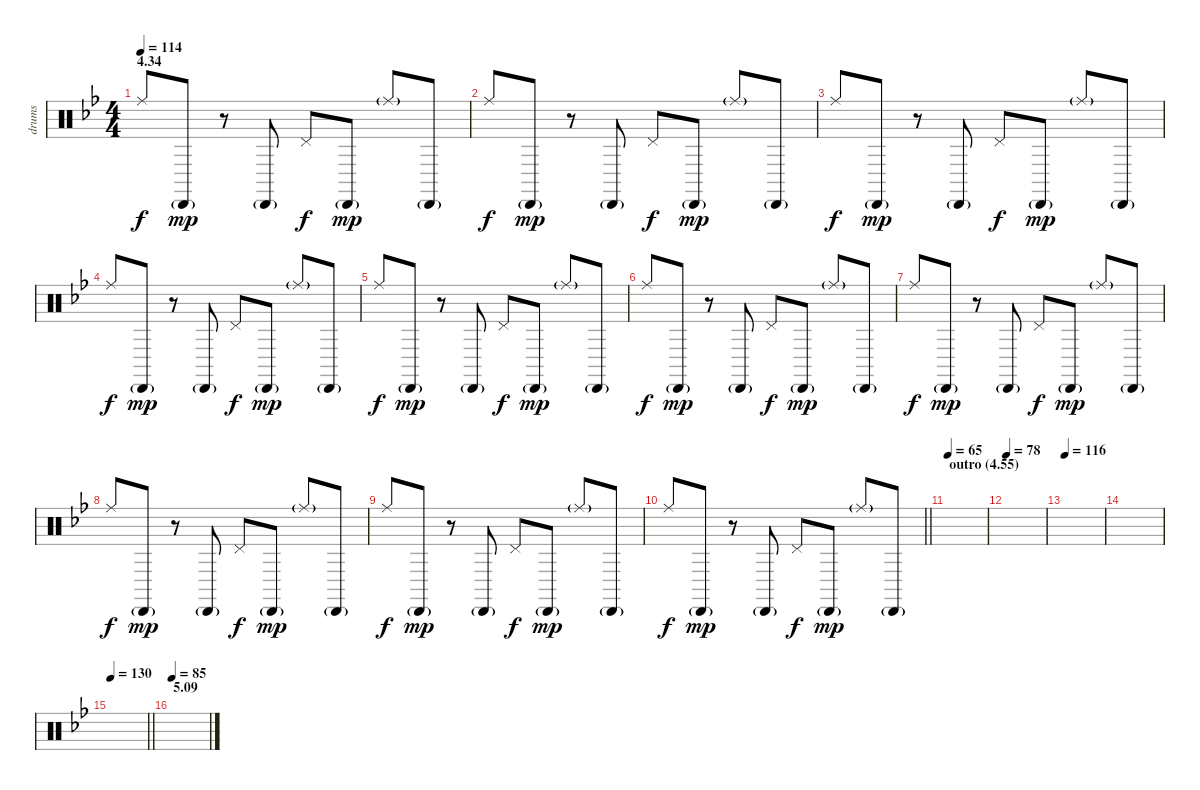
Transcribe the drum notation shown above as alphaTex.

\track ("drums" "drums") {instrument percussion}
\staff {score}
\articulation defaults
\ts (4 4)
\section ("" "4.34")
\tempo 114
\clef neutral
\ks bb "Ride (middle)".8{dy f} "Cabasa (hit)"{g}.8{dy mp}
r.8 "Cabasa (hit)"{g}.8 "Pedal Hi-Hat (hit)".8{dy f} "Cabasa (hit)"{g}.8{dy mp} "Ride (middle)"{g}.8 "Cabasa (hit)"{g}.8 |
"Ride (middle)".8{dy f} "Cabasa (hit)"{g}.8{dy mp} r.8 "Cabasa (hit)"{g}.8 "Pedal Hi-Hat (hit)".8{dy f} "Cabasa (hit)"{g}.8{dy mp} "Ride (middle)"{g}.8 "Cabasa (hit)"{g}.8 |
"Ride (middle)".8{dy f} "Cabasa (hit)"{g}.8{dy mp} r.8 "Cabasa (hit)"{g}.8 "Pedal Hi-Hat (hit)".8{dy f} "Cabasa (hit)"{g}.8{dy mp} "Ride (middle)"{g}.8 "Cabasa (hit)"{g}.8 |
"Ride (middle)".8{dy f} "Cabasa (hit)"{g}.8{dy mp} r.8 "Cabasa (hit)"{g}.8 "Pedal Hi-Hat (hit)".8{dy f} "Cabasa (hit)"{g}.8{dy mp} "Ride (middle)"{g}.8 "Cabasa (hit)"{g}.8 |
"Ride (middle)".8{dy f} "Cabasa (hit)"{g}.8{dy mp} r.8 "Cabasa (hit)"{g}.8 "Pedal Hi-Hat (hit)".8{dy f} "Cabasa (hit)"{g}.8{dy mp} "Ride (middle)"{g}.8 "Cabasa (hit)"{g}.8 |
"Ride (middle)".8{dy f} "Cabasa (hit)"{g}.8{dy mp} r.8 "Cabasa (hit)"{g}.8 "Pedal Hi-Hat (hit)".8{dy f} "Cabasa (hit)"{g}.8{dy mp} "Ride (middle)"{g}.8 "Cabasa (hit)"{g}.8 |
"Ride (middle)".8{dy f} "Cabasa (hit)"{g}.8{dy mp} r.8 "Cabasa (hit)"{g}.8 "Pedal Hi-Hat (hit)".8{dy f} "Cabasa (hit)"{g}.8{dy mp} "Ride (middle)"{g}.8 "Cabasa (hit)"{g}.8 |
"Ride (middle)".8{dy f} "Cabasa (hit)"{g}.8{dy mp} r.8 "Cabasa (hit)"{g}.8 "Pedal Hi-Hat (hit)".8{dy f} "Cabasa (hit)"{g}.8{dy mp} "Ride (middle)"{g}.8 "Cabasa (hit)"{g}.8 |
"Ride (middle)".8{dy f} "Cabasa (hit)"{g}.8{dy mp} r.8 "Cabasa (hit)"{g}.8 "Pedal Hi-Hat (hit)".8{dy f} "Cabasa (hit)"{g}.8{dy mp} "Ride (middle)"{g}.8 "Cabasa (hit)"{g}.8 |
\barLineRight lightlight "Ride (middle)".8{dy f} "Cabasa (hit)"{g}.8{dy mp}
r.8 "Cabasa (hit)"{g}.8 "Pedal Hi-Hat (hit)".8{dy f} "Cabasa (hit)"{g}.8{dy mp} "Ride (middle)"{g}.8 "Cabasa (hit)"{g}.8 |
\section ("" "outro (4.55)")
\tempo 65
|
\tempo 78
|
\tempo 116
|
|
\tempo 130
\barLineRight lightlight
|
\section ("" "5.09")
\tempo 85
